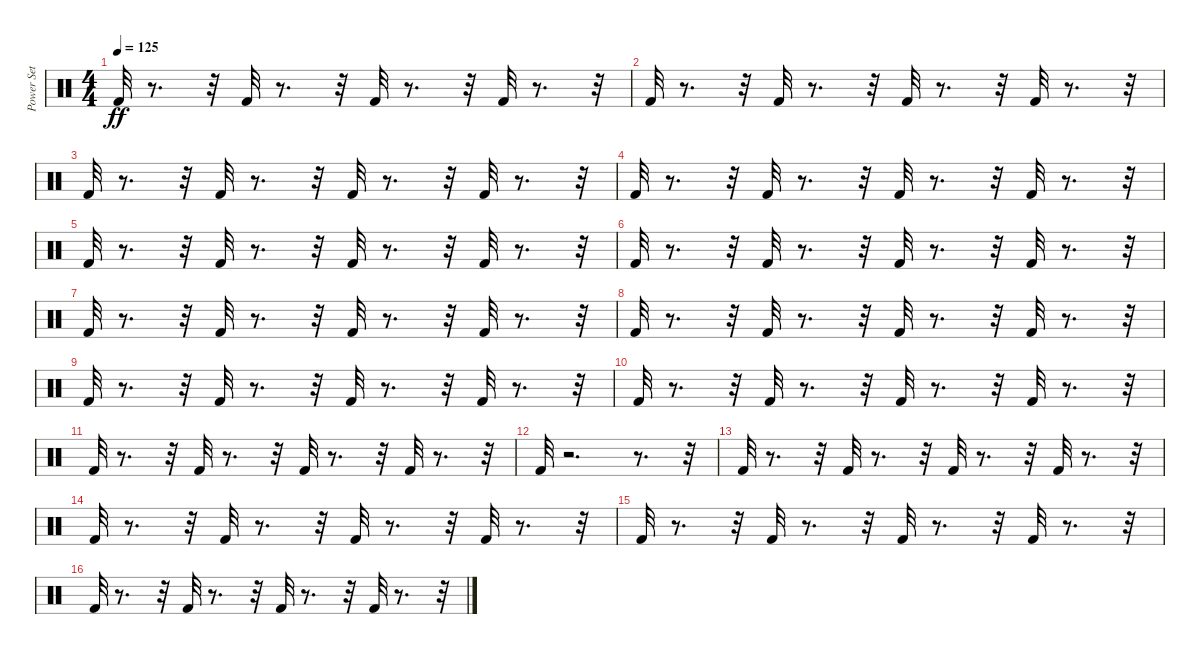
\track ("Power Set" "Power Set") {instrument percussion}
\staff {score}
\articulation defaults
\ts (4 4)
\tempo 125
\clef neutral
\ks c "Kick (hit) 2".32{dy ff}
r.8{d} r.32 "Kick (hit) 2".32 r.8{d} r.32 "Kick (hit) 2".32 r.8{d} r.32 "Kick (hit) 2".32 r.8{d} r.32 |
"Kick (hit) 2".32 r.8{d} r.32 "Kick (hit) 2".32 r.8{d} r.32 "Kick (hit) 2".32 r.8{d} r.32 "Kick (hit) 2".32 r.8{d} r.32 |
"Kick (hit) 2".32 r.8{d} r.32 "Kick (hit) 2".32 r.8{d} r.32 "Kick (hit) 2".32 r.8{d} r.32 "Kick (hit) 2".32 r.8{d} r.32 |
"Kick (hit) 2".32 r.8{d} r.32 "Kick (hit) 2".32 r.8{d} r.32 "Kick (hit) 2".32 r.8{d} r.32 "Kick (hit) 2".32 r.8{d} r.32 |
"Kick (hit) 2".32 r.8{d} r.32 "Kick (hit) 2".32 r.8{d} r.32 "Kick (hit) 2".32 r.8{d} r.32 "Kick (hit) 2".32 r.8{d} r.32 |
"Kick (hit) 2".32 r.8{d} r.32 "Kick (hit) 2".32 r.8{d} r.32 "Kick (hit) 2".32 r.8{d} r.32 "Kick (hit) 2".32 r.8{d} r.32 |
"Kick (hit) 2".32 r.8{d} r.32 "Kick (hit) 2".32 r.8{d} r.32 "Kick (hit) 2".32 r.8{d} r.32 "Kick (hit) 2".32 r.8{d} r.32 |
"Kick (hit) 2".32 r.8{d} r.32 "Kick (hit) 2".32 r.8{d} r.32 "Kick (hit) 2".32 r.8{d} r.32 "Kick (hit) 2".32 r.8{d} r.32 |
"Kick (hit) 2".32 r.8{d} r.32 "Kick (hit) 2".32 r.8{d} r.32 "Kick (hit) 2".32 r.8{d} r.32 "Kick (hit) 2".32 r.8{d} r.32 |
"Kick (hit) 2".32 r.8{d} r.32 "Kick (hit) 2".32 r.8{d} r.32 "Kick (hit) 2".32 r.8{d} r.32 "Kick (hit) 2".32 r.8{d} r.32 |
"Kick (hit) 2".32 r.8{d} r.32 "Kick (hit) 2".32 r.8{d} r.32 "Kick (hit) 2".32 r.8{d} r.32 "Kick (hit) 2".32 r.8{d} r.32 |
"Kick (hit) 2".32 r.2{d} r.8{d} r.32 |
"Kick (hit) 2".32 r.8{d} r.32 "Kick (hit) 2".32 r.8{d} r.32 "Kick (hit) 2".32 r.8{d} r.32 "Kick (hit) 2".32 r.8{d} r.32 |
"Kick (hit) 2".32 r.8{d} r.32 "Kick (hit) 2".32 r.8{d} r.32 "Kick (hit) 2".32 r.8{d} r.32 "Kick (hit) 2".32 r.8{d} r.32 |
"Kick (hit) 2".32 r.8{d} r.32 "Kick (hit) 2".32 r.8{d} r.32 "Kick (hit) 2".32 r.8{d} r.32 "Kick (hit) 2".32 r.8{d} r.32 |
"Kick (hit) 2".32 r.8{d} r.32 "Kick (hit) 2".32 r.8{d} r.32 "Kick (hit) 2".32 r.8{d} r.32 "Kick (hit) 2".32 r.8{d} r.32
